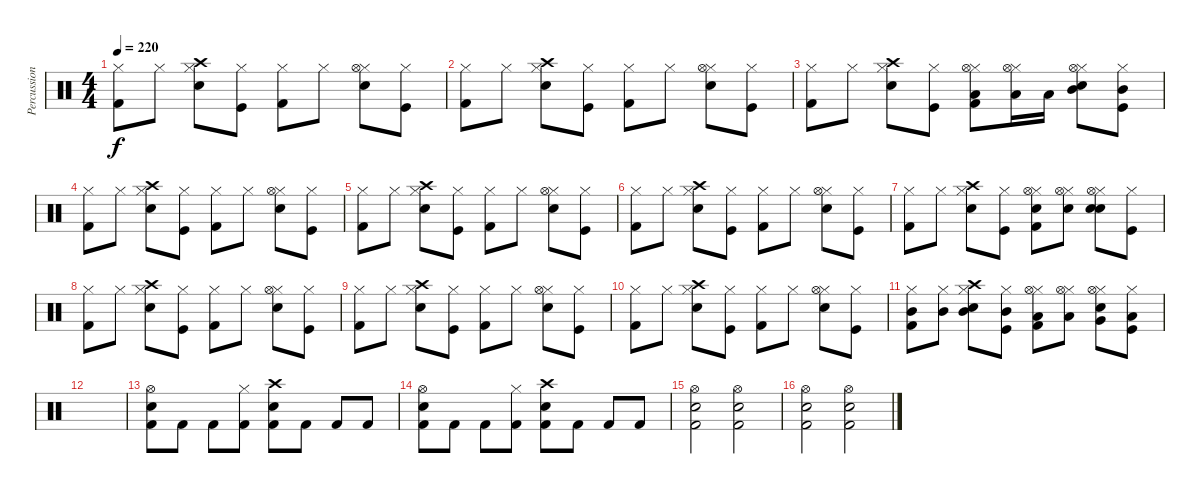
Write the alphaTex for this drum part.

\track ("Percussion" "Percussion") {instrument percussion}
\staff {score}
\articulation defaults
\ts (4 4)
\tempo 220
\clef neutral
\ks c
("Kick (hit) 2" "Hi-Hat (closed)").8{dy f} "Hi-Hat (closed)".8 ("Snare (hit) 2" "Hi-Hat (closed)" "Crash high (hit)").8 ("Kick (hit)" "Hi-Hat (closed)").8 ("Kick (hit) 2" "Hi-Hat (closed)").8 "Hi-Hat (closed)".8 ("Snare (hit) 2" "Hi-Hat (closed)" "Hi-Hat (open)").8 ("Kick (hit)" "Hi-Hat (closed)").8 |
("Kick (hit) 2" "Hi-Hat (closed)").8 "Hi-Hat (closed)".8 ("Snare (hit) 2" "Hi-Hat (closed)" "Crash high (hit)").8 ("Kick (hit)" "Hi-Hat (closed)").8 ("Kick (hit) 2" "Hi-Hat (closed)").8 "Hi-Hat (closed)".8 ("Snare (hit) 2" "Hi-Hat (closed)" "Hi-Hat (open)").8 ("Kick (hit)" "Hi-Hat (closed)").8 |
("Kick (hit) 2" "Hi-Hat (closed)").8 "Hi-Hat (closed)".8 ("Snare (hit) 2" "Hi-Hat (closed)" "Crash high (hit)").8 ("Kick (hit)" "Hi-Hat (closed)").8 ("Kick (hit) 2" "Low Tom (hit)" "Hi-Hat (closed)" "Hi-Hat (open)").8 ("Low Tom (hit)" "Hi-Hat (closed)" "Hi-Hat (open)").16 "Low Tom (hit)".16 ("Snare (hit) 2" "Mid Tom (hit)" "Hi-Hat (closed)" "Hi-Hat (open)").8 ("Kick (hit)" "Mid Tom (hit)" "Hi-Hat (closed)").8 |
("Kick (hit) 2" "Hi-Hat (closed)").8 "Hi-Hat (closed)".8 ("Snare (hit) 2" "Hi-Hat (closed)" "Crash high (hit)").8 ("Kick (hit)" "Hi-Hat (closed)").8 ("Kick (hit) 2" "Hi-Hat (closed)").8 "Hi-Hat (closed)".8 ("Snare (hit) 2" "Hi-Hat (closed)" "Hi-Hat (open)").8 ("Kick (hit)" "Hi-Hat (closed)").8 |
("Kick (hit) 2" "Hi-Hat (closed)").8 "Hi-Hat (closed)".8 ("Snare (hit) 2" "Hi-Hat (closed)" "Crash high (hit)").8 ("Kick (hit)" "Hi-Hat (closed)").8 ("Kick (hit) 2" "Hi-Hat (closed)").8 "Hi-Hat (closed)".8 ("Snare (hit) 2" "Hi-Hat (closed)" "Hi-Hat (open)").8 ("Kick (hit)" "Hi-Hat (closed)").8 |
("Kick (hit) 2" "Hi-Hat (closed)").8 "Hi-Hat (closed)".8 ("Snare (hit) 2" "Hi-Hat (closed)" "Crash high (hit)").8 ("Kick (hit)" "Hi-Hat (closed)").8 ("Kick (hit) 2" "Hi-Hat (closed)").8 "Hi-Hat (closed)".8 ("Snare (hit) 2" "Hi-Hat (closed)" "Hi-Hat (open)").8 ("Kick (hit)" "Hi-Hat (closed)").8 |
("Kick (hit) 2" "Hi-Hat (closed)").8 "Hi-Hat (closed)".8 ("Snare (hit) 2" "Hi-Hat (closed)" "Crash high (hit)").8 ("Kick (hit)" "Hi-Hat (closed)").8 ("Kick (hit) 2" "Snare (hit) 2" "Hi-Hat (closed)" "Hi-Hat (open)").8 ("Snare (hit) 2" "Hi-Hat (closed)" "Hi-Hat (open)").8 ("Snare (hit) 2" "Snare (hit) 2" "Hi-Hat (closed)" "Hi-Hat (open)").8 ("Kick (hit)" "Hi-Hat (closed)").8 |
("Kick (hit) 2" "Hi-Hat (closed)").8 "Hi-Hat (closed)".8 ("Snare (hit) 2" "Hi-Hat (closed)" "Crash high (hit)").8 ("Kick (hit)" "Hi-Hat (closed)").8 ("Kick (hit) 2" "Hi-Hat (closed)").8 "Hi-Hat (closed)".8 ("Snare (hit) 2" "Hi-Hat (closed)" "Hi-Hat (open)").8 ("Kick (hit)" "Hi-Hat (closed)").8 |
("Kick (hit) 2" "Hi-Hat (closed)").8 "Hi-Hat (closed)".8 ("Snare (hit) 2" "Hi-Hat (closed)" "Crash high (hit)").8 ("Kick (hit)" "Hi-Hat (closed)").8 ("Kick (hit) 2" "Hi-Hat (closed)").8 "Hi-Hat (closed)".8 ("Snare (hit) 2" "Hi-Hat (closed)" "Hi-Hat (open)").8 ("Kick (hit)" "Hi-Hat (closed)").8 |
("Kick (hit) 2" "Hi-Hat (closed)").8 "Hi-Hat (closed)".8 ("Snare (hit) 2" "Hi-Hat (closed)" "Crash high (hit)").8 ("Kick (hit)" "Hi-Hat (closed)").8 ("Kick (hit) 2" "Hi-Hat (closed)").8 "Hi-Hat (closed)".8 ("Snare (hit) 2" "Hi-Hat (closed)" "Hi-Hat (open)").8 ("Kick (hit)" "Hi-Hat (closed)").8 |
("Kick (hit) 2" "Mid Tom (hit)" "Hi-Hat (closed)").8 ("Mid Tom (hit)" "Hi-Hat (closed)").8 ("Snare (hit) 2" "Mid Tom (hit)" "Hi-Hat (closed)" "Crash high (hit)").8 ("Kick (hit)" "Mid Tom (hit)" "Hi-Hat (closed)").8 ("Kick (hit) 2" "Low Tom (hit)" "Hi-Hat (closed)" "Hi-Hat (open)").8 ("Low Tom (hit)" "Hi-Hat (closed)" "Hi-Hat (open)").8 ("Snare (hit) 2" "Very Low Tom (hit)" "Hi-Hat (closed)" "Hi-Hat (open)").8 ("Kick (hit)" "Low Tom (hit)" "Hi-Hat (closed)").8 |
|
("Snare (hit) 2" "Hi-Hat (open)" "Kick (hit) 2").8 "Kick (hit) 2".8 "Kick (hit) 2".8 ("Hi-Hat (closed)" "Kick (hit) 2").8 ("Snare (hit) 2" "Crash high (hit)" "Kick (hit) 2").8 "Kick (hit) 2".8 "Kick (hit) 2".8 "Kick (hit) 2".8 |
("Snare (hit) 2" "Hi-Hat (open)" "Kick (hit) 2").8 "Kick (hit) 2".8 "Kick (hit) 2".8 ("Hi-Hat (closed)" "Kick (hit) 2").8 ("Snare (hit) 2" "Crash high (hit)" "Kick (hit) 2").8 "Kick (hit) 2".8 "Kick (hit) 2".8 "Kick (hit) 2".8 |
("Snare (hit) 2" "Hi-Hat (open)" "Kick (hit) 2").2 ("Snare (hit) 2" "Hi-Hat (open)" "Kick (hit) 2").2 |
("Snare (hit) 2" "Hi-Hat (open)" "Kick (hit) 2").2 ("Snare (hit) 2" "Hi-Hat (open)" "Kick (hit) 2").2
